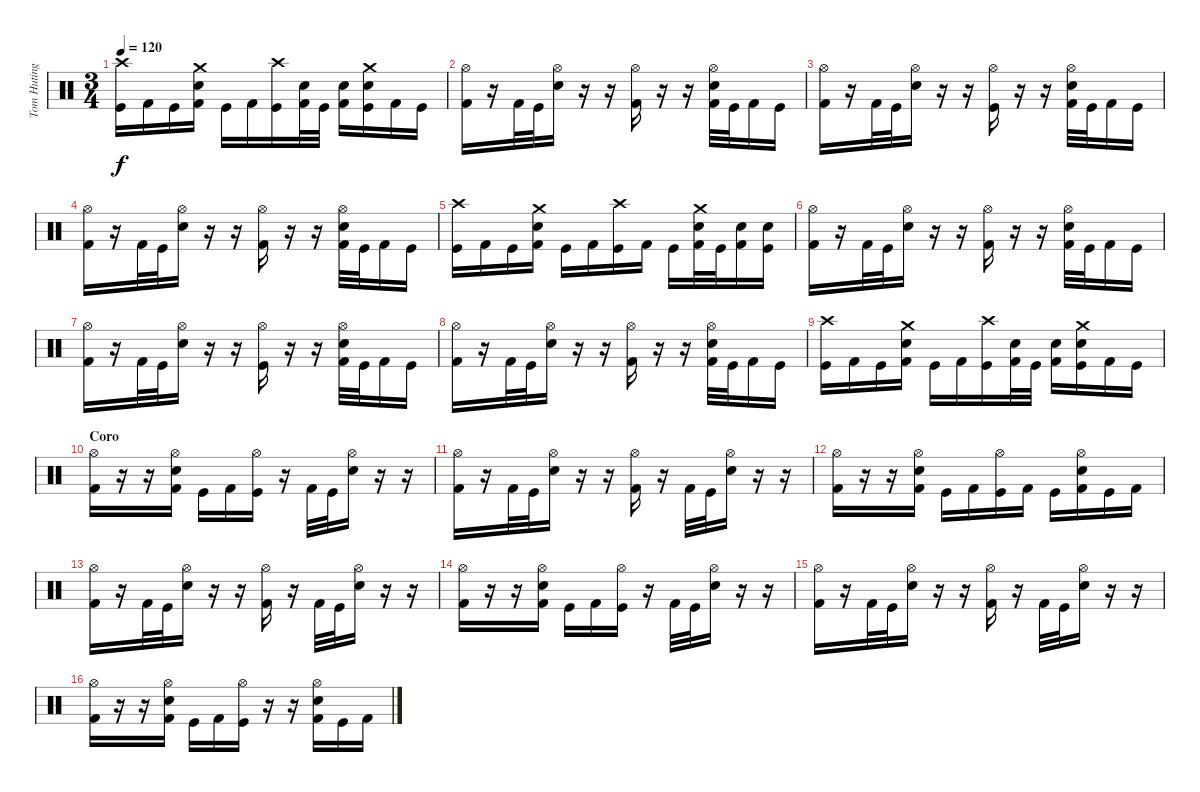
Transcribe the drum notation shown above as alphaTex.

\track ("Tom Huting" "Tom Huting") {instrument percussion}
\staff {score}
\articulation defaults
\ts (3 4)
\tempo 120
\clef neutral
\ks c
("Kick (hit)" "Crash high (hit)").16{dy f} "Kick (hit) 2".16 "Kick (hit)".16 ("Kick (hit) 2" "Snare (hit) 2" "Crash medium (hit)").16 "Kick (hit)".16 "Kick (hit) 2".16 ("Kick (hit)" "Crash high (hit)").16 ("Kick (hit) 2" "Snare (hit) 2").32 "Kick (hit)".32 ("Kick (hit) 2" "Snare (hit) 2").16 ("Kick (hit)" "Snare (hit) 2" "Crash medium (hit)").16 "Kick (hit) 2".16 "Kick (hit)".16 |
("Kick (hit) 2" "Hi-Hat (open)").16 r.16 "Kick (hit) 2".32 "Kick (hit)".32 ("Snare (hit) 2" "Hi-Hat (open)").16 r.16 r.16 ("Kick (hit) 2" "Hi-Hat (open)").16 r.16 r.16 ("Kick (hit) 2" "Snare (hit) 2" "Hi-Hat (open)").32 "Kick (hit)".32 "Kick (hit) 2".16 "Kick (hit)".16 |
("Kick (hit) 2" "Hi-Hat (open)").16 r.16 "Kick (hit) 2".32 "Kick (hit)".32 ("Snare (hit) 2" "Hi-Hat (open)").16 r.16 r.16 ("Kick (hit)" "Hi-Hat (open)").16 r.16 r.16 ("Kick (hit) 2" "Snare (hit) 2" "Hi-Hat (open)").32 "Kick (hit)".32 "Kick (hit) 2".16 "Kick (hit)".16 |
("Kick (hit) 2" "Hi-Hat (open)").16 r.16 "Kick (hit) 2".32 "Kick (hit)".32 ("Snare (hit) 2" "Hi-Hat (open)").16 r.16 r.16 ("Kick (hit) 2" "Hi-Hat (open)").16 r.16 r.16 ("Kick (hit) 2" "Snare (hit) 2" "Hi-Hat (open)").32 "Kick (hit)".32 "Kick (hit) 2".16 "Kick (hit)".16 |
("Kick (hit)" "Crash high (hit)").16 "Kick (hit) 2".16 "Kick (hit)".16 ("Kick (hit) 2" "Snare (hit) 2" "Crash medium (hit)").16 "Kick (hit)".16 "Kick (hit) 2".16 ("Kick (hit)" "Crash high (hit)").16 "Kick (hit) 2".16 "Kick (hit)".16 ("Kick (hit) 2" "Snare (hit) 2" "Crash medium (hit)").32 "Kick (hit)".32 ("Kick (hit) 2" "Snare (hit) 2").16 ("Kick (hit)" "Snare (hit) 2").16 |
("Kick (hit) 2" "Hi-Hat (open)").16 r.16 "Kick (hit) 2".32 "Kick (hit)".32 ("Snare (hit) 2" "Hi-Hat (open)").16 r.16 r.16 ("Kick (hit) 2" "Hi-Hat (open)").16 r.16 r.16 ("Kick (hit) 2" "Snare (hit) 2" "Hi-Hat (open)").32 "Kick (hit)".32 "Kick (hit) 2".16 "Kick (hit)".16 |
("Kick (hit) 2" "Hi-Hat (open)").16 r.16 "Kick (hit) 2".32 "Kick (hit)".32 ("Snare (hit) 2" "Hi-Hat (open)").16 r.16 r.16 ("Kick (hit)" "Hi-Hat (open)").16 r.16 r.16 ("Kick (hit) 2" "Snare (hit) 2" "Hi-Hat (open)").32 "Kick (hit)".32 "Kick (hit) 2".16 "Kick (hit)".16 |
("Kick (hit) 2" "Hi-Hat (open)").16 r.16 "Kick (hit) 2".32 "Kick (hit)".32 ("Snare (hit) 2" "Hi-Hat (open)").16 r.16 r.16 ("Kick (hit) 2" "Hi-Hat (open)").16 r.16 r.16 ("Kick (hit) 2" "Snare (hit) 2" "Hi-Hat (open)").32 "Kick (hit)".32 "Kick (hit) 2".16 "Kick (hit)".16 |
("Kick (hit)" "Crash high (hit)").16 "Kick (hit) 2".16 "Kick (hit)".16 ("Kick (hit) 2" "Snare (hit) 2" "Crash medium (hit)").16 "Kick (hit)".16 "Kick (hit) 2".16 ("Kick (hit)" "Crash high (hit)").16 ("Kick (hit) 2" "Snare (hit) 2").32 "Kick (hit)".32 ("Kick (hit) 2" "Snare (hit) 2").16 ("Kick (hit)" "Snare (hit) 2" "Crash medium (hit)").16 "Kick (hit) 2".16 "Kick (hit)".16 |
\section ("" "Coro")
("Kick (hit) 2" "Hi-Hat (open)").16 r.16 r.16 ("Kick (hit) 2" "Snare (hit) 2" "Hi-Hat (open)").16 "Kick (hit)".16 "Kick (hit) 2".16 ("Kick (hit)" "Hi-Hat (open)").16 r.16 "Kick (hit) 2".32 "Kick (hit)".32 ("Snare (hit) 2" "Hi-Hat (open)").16 r.16 r.16 |
("Kick (hit) 2" "Hi-Hat (open)").16 r.16 "Kick (hit) 2".32 "Kick (hit)".32 ("Snare (hit) 2" "Hi-Hat (open)").16 r.16 r.16 ("Kick (hit) 2" "Hi-Hat (open)").16 r.16 "Kick (hit) 2".32 "Kick (hit)".32 ("Snare (hit) 2" "Hi-Hat (open)").16 r.16 r.16 |
("Kick (hit) 2" "Hi-Hat (open)").16 r.16 r.16 ("Kick (hit) 2" "Snare (hit) 2" "Hi-Hat (open)").16 "Kick (hit)".16 "Kick (hit) 2".16 ("Kick (hit)" "Hi-Hat (open)").16 "Kick (hit) 2".16 "Kick (hit)".16 ("Kick (hit) 2" "Snare (hit) 2" "Hi-Hat (open)").16 "Kick (hit)".16 "Kick (hit) 2".16 |
("Kick (hit) 2" "Hi-Hat (open)").16 r.16 "Kick (hit) 2".32 "Kick (hit)".32 ("Snare (hit) 2" "Hi-Hat (open)").16 r.16 r.16 ("Kick (hit) 2" "Hi-Hat (open)").16 r.16 "Kick (hit) 2".32 "Kick (hit)".32 ("Snare (hit) 2" "Hi-Hat (open)").16 r.16 r.16 |
("Kick (hit) 2" "Hi-Hat (open)").16 r.16 r.16 ("Kick (hit) 2" "Snare (hit) 2" "Hi-Hat (open)").16 "Kick (hit)".16 "Kick (hit) 2".16 ("Kick (hit)" "Hi-Hat (open)").16 r.16 "Kick (hit) 2".32 "Kick (hit)".32 ("Snare (hit) 2" "Hi-Hat (open)").16 r.16 r.16 |
("Kick (hit) 2" "Hi-Hat (open)").16 r.16 "Kick (hit) 2".32 "Kick (hit)".32 ("Snare (hit) 2" "Hi-Hat (open)").16 r.16 r.16 ("Kick (hit) 2" "Hi-Hat (open)").16 r.16 "Kick (hit) 2".32 "Kick (hit)".32 ("Snare (hit) 2" "Hi-Hat (open)").16 r.16 r.16 |
("Kick (hit) 2" "Hi-Hat (open)").16 r.16 r.16 ("Kick (hit) 2" "Snare (hit) 2" "Hi-Hat (open)").16 "Kick (hit)".16 "Kick (hit) 2".16 ("Kick (hit)" "Hi-Hat (open)").16 r.16 r.16 ("Kick (hit) 2" "Snare (hit) 2" "Hi-Hat (open)").16 "Kick (hit)".16 "Kick (hit) 2".16
